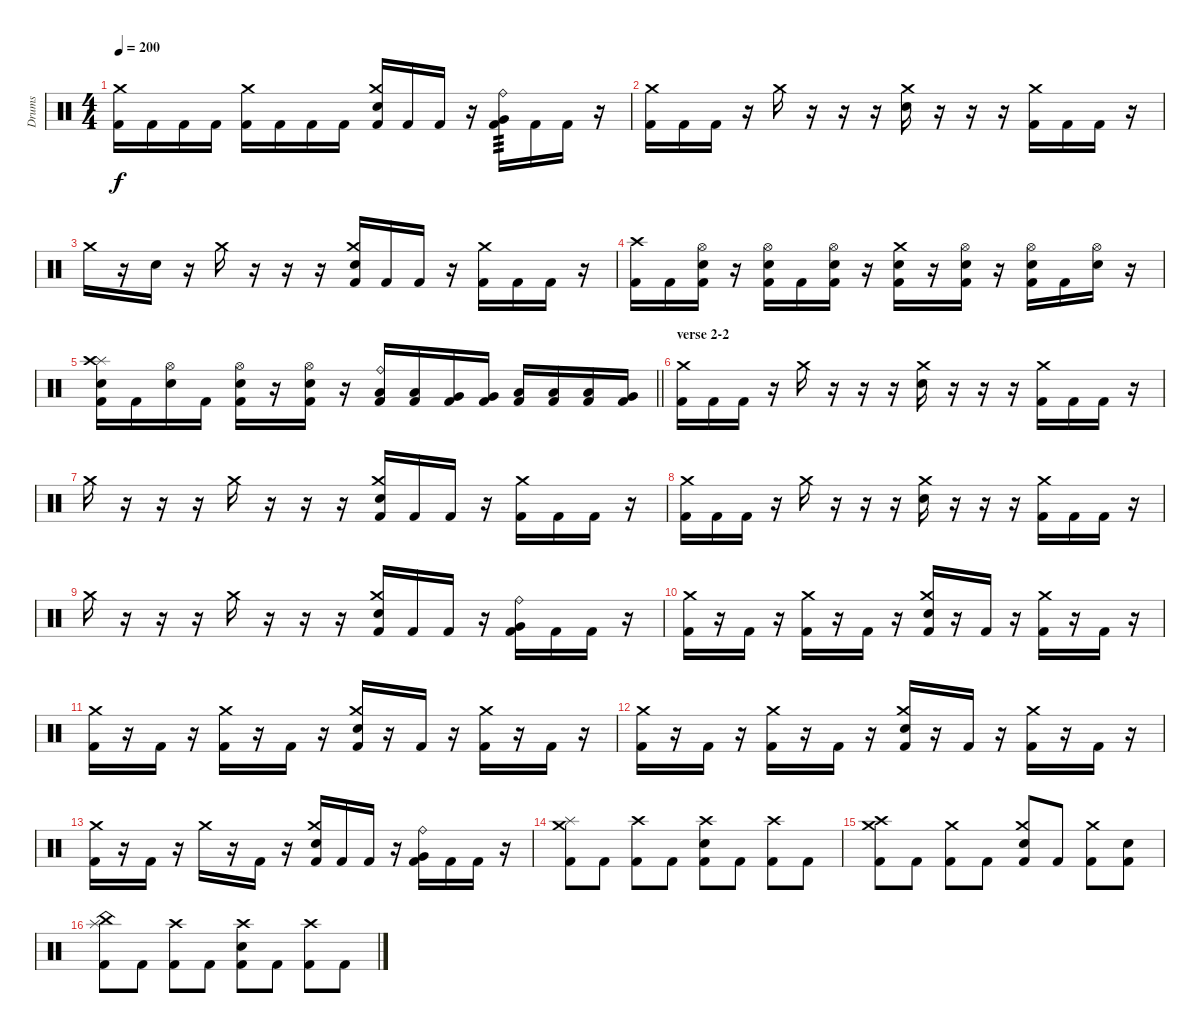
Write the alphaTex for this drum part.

\track ("Drums" "Drums") {instrument percussion}
\staff {score}
\articulation defaults
\ts (4 4)
\tempo 200
\clef neutral
\ks c
("Kick (hit) 2" "Crash medium (hit)").16{dy f} "Kick (hit) 2".16 "Kick (hit) 2".16 "Kick (hit) 2".16 ("Kick (hit) 2" "Crash medium (hit)").16 "Kick (hit) 2".16 "Kick (hit) 2".16 "Kick (hit) 2".16 ("Electric Snare (hit)" "Kick (hit) 2" "Crash medium (hit)").16 "Kick (hit) 2".16 "Kick (hit) 2".16 r.16 ("Kick (hit) 2" "Very Low Tom (hit)" "Ride (bell)").16{tp 3} "Kick (hit) 2".16 "Kick (hit) 2".16 r.16 |
("Kick (hit) 2" "Crash medium (hit)").16 "Kick (hit) 2".16 "Kick (hit) 2".16 r.16 "Crash medium (hit)".16 r.16 r.16 r.16 ("Electric Snare (hit)" "Crash medium (hit)").16 r.16 r.16 r.16 ("Kick (hit) 2" "Crash medium (hit)").16 "Kick (hit) 2".16 "Kick (hit) 2".16 r.16 |
"Crash medium (hit)".16 r.16 "Electric Snare (hit)".16 r.16 "Crash medium (hit)".16 r.16 r.16 r.16 ("Electric Snare (hit)" "Kick (hit) 2" "Crash medium (hit)").16 "Kick (hit) 2".16 "Kick (hit) 2".16 r.16 ("Kick (hit) 2" "Crash medium (hit)").16 "Kick (hit) 2".16 "Kick (hit) 2".16 r.16 |
("Kick (hit) 2" "Crash high (hit)").16 "Kick (hit) 2".16 ("Electric Snare (hit)" "Kick (hit) 2" "Hi-Hat (open)").16 r.16 ("Electric Snare (hit)" "Kick (hit) 2" "Hi-Hat (open)").16 "Kick (hit) 2".16 ("Electric Snare (hit)" "Kick (hit) 2" "Hi-Hat (open)").16 r.16 ("Electric Snare (hit)" "Kick (hit) 2" "Crash medium (hit)").16 r.16 ("Electric Snare (hit)" "Kick (hit) 2" "Hi-Hat (open)").16 r.16 ("Electric Snare (hit)" "Kick (hit) 2" "Hi-Hat (open)").16 "Kick (hit) 2".16 ("Electric Snare (hit)" "Hi-Hat (open)").16 r.16 |
\barLineRight lightlight
("Electric Snare (hit)" "Kick (hit) 2" "Splash (hit)" "Crash high (hit)").16 "Kick (hit) 2".16 ("Electric Snare (hit)" "Hi-Hat (open)").16 "Kick (hit) 2".16 ("Electric Snare (hit)" "Kick (hit) 2" "Hi-Hat (open)").16 r.16 ("Electric Snare (hit)" "Kick (hit) 2" "Hi-Hat (open)").16 r.16 ("Kick (hit) 2" "Low Tom (hit)" "Ride (bell)").16 ("Kick (hit) 2" "Low Tom (hit)").16 ("Kick (hit) 2" "Very Low Tom (hit)").16 ("Kick (hit) 2" "Very Low Tom (hit)").16 ("Kick (hit) 2" "Low Tom (hit)").16 ("Kick (hit) 2" "Low Floor Tom (hit)").16 ("Kick (hit) 2" "Low Floor Tom (hit)").16 ("Kick (hit) 2" "Very Low Tom (hit)").16 |
\section ("" "verse 2-2")
("Kick (hit) 2" "Crash medium (hit)").16 "Kick (hit) 2".16 "Kick (hit) 2".16 r.16 "Crash medium (hit)".16 r.16 r.16 r.16 ("Electric Snare (hit)" "Crash medium (hit)").16 r.16 r.16 r.16 ("Kick (hit) 2" "Crash medium (hit)").16 "Kick (hit) 2".16 "Kick (hit) 2".16 r.16 |
"Crash medium (hit)".16 r.16 r.16 r.16 "Crash medium (hit)".16 r.16 r.16 r.16 ("Electric Snare (hit)" "Kick (hit) 2" "Crash medium (hit)").16 "Kick (hit) 2".16 "Kick (hit) 2".16 r.16 ("Kick (hit) 2" "Crash medium (hit)").16 "Kick (hit) 2".16 "Kick (hit) 2".16 r.16 |
("Kick (hit) 2" "Crash medium (hit)").16 "Kick (hit) 2".16 "Kick (hit) 2".16 r.16 "Crash medium (hit)".16 r.16 r.16 r.16 ("Electric Snare (hit)" "Crash medium (hit)").16 r.16 r.16 r.16 ("Kick (hit) 2" "Crash medium (hit)").16 "Kick (hit) 2".16 "Kick (hit) 2".16 r.16 |
"Crash medium (hit)".16 r.16 r.16 r.16 "Crash medium (hit)".16 r.16 r.16 r.16 ("Electric Snare (hit)" "Kick (hit) 2" "Crash medium (hit)").16 "Kick (hit) 2".16 "Kick (hit) 2".16 r.16 ("Kick (hit) 2" "Very Low Tom (hit)" "Ride (bell)").16 "Kick (hit) 2".16 "Kick (hit) 2".16 r.16 |
("Kick (hit) 2" "Crash medium (hit)").16 r.16 "Kick (hit) 2".16 r.16 ("Kick (hit) 2" "Crash medium (hit)").16 r.16 "Kick (hit) 2".16 r.16 ("Electric Snare (hit)" "Kick (hit) 2" "Crash medium (hit)").16 r.16 "Kick (hit) 2".16 r.16 ("Kick (hit) 2" "Crash medium (hit)").16 r.16 "Kick (hit) 2".16 r.16 |
("Kick (hit) 2" "Crash medium (hit)").16 r.16 "Kick (hit) 2".16 r.16 ("Kick (hit) 2" "Crash medium (hit)").16 r.16 "Kick (hit) 2".16 r.16 ("Electric Snare (hit)" "Kick (hit) 2" "Crash medium (hit)").16 r.16 "Kick (hit) 2".16 r.16 ("Kick (hit) 2" "Crash medium (hit)").16 r.16 "Kick (hit) 2".16 r.16 |
("Kick (hit) 2" "Crash medium (hit)").16 r.16 "Kick (hit) 2".16 r.16 ("Kick (hit) 2" "Crash medium (hit)").16 r.16 "Kick (hit) 2".16 r.16 ("Electric Snare (hit)" "Kick (hit) 2" "Crash medium (hit)").16 r.16 "Kick (hit) 2".16 r.16 ("Kick (hit) 2" "Crash medium (hit)").16 r.16 "Kick (hit) 2".16 r.16 |
("Kick (hit) 2" "Crash medium (hit)").16 r.16 "Kick (hit) 2".16 r.16 "Crash medium (hit)".16 r.16 "Kick (hit) 2".16 r.16 ("Electric Snare (hit)" "Kick (hit) 2" "Crash medium (hit)").16 "Kick (hit) 2".16 "Kick (hit) 2".16 r.16 ("Kick (hit) 2" "Very Low Tom (hit)" "Ride (bell)").16 "Kick (hit) 2".16 "Kick (hit) 2".16 r.16 |
("Kick (hit) 2" "Crash medium (hit)" "Splash (hit)").8 "Kick (hit) 2".8 ("Kick (hit) 2" "Crash high (hit)").8 "Kick (hit) 2".8 ("Electric Snare (hit)" "Kick (hit) 2" "Crash high (hit)").8 "Kick (hit) 2".8 ("Kick (hit) 2" "Crash high (hit)").8 "Kick (hit) 2".8 |
("Kick (hit) 2" "Crash medium (hit)" "Crash high (hit)").8 "Kick (hit) 2".8 ("Kick (hit) 2" "Crash medium (hit)").8 "Kick (hit) 2".8 ("Electric Snare (hit)" "Kick (hit) 2" "Crash medium (hit)").8 "Kick (hit) 2".8 ("Kick (hit) 2" "Crash medium (hit)").8 ("Electric Snare (hit)" "Kick (hit) 2").8 |
("Kick (hit) 2" "Splash (hit)" "China (hit)").8 "Kick (hit) 2".8 ("Kick (hit) 2" "Crash high (hit)").8 "Kick (hit) 2".8 ("Electric Snare (hit)" "Kick (hit) 2" "Crash high (hit)").8 "Kick (hit) 2".8 ("Kick (hit) 2" "Crash high (hit)").8 "Kick (hit) 2".8
